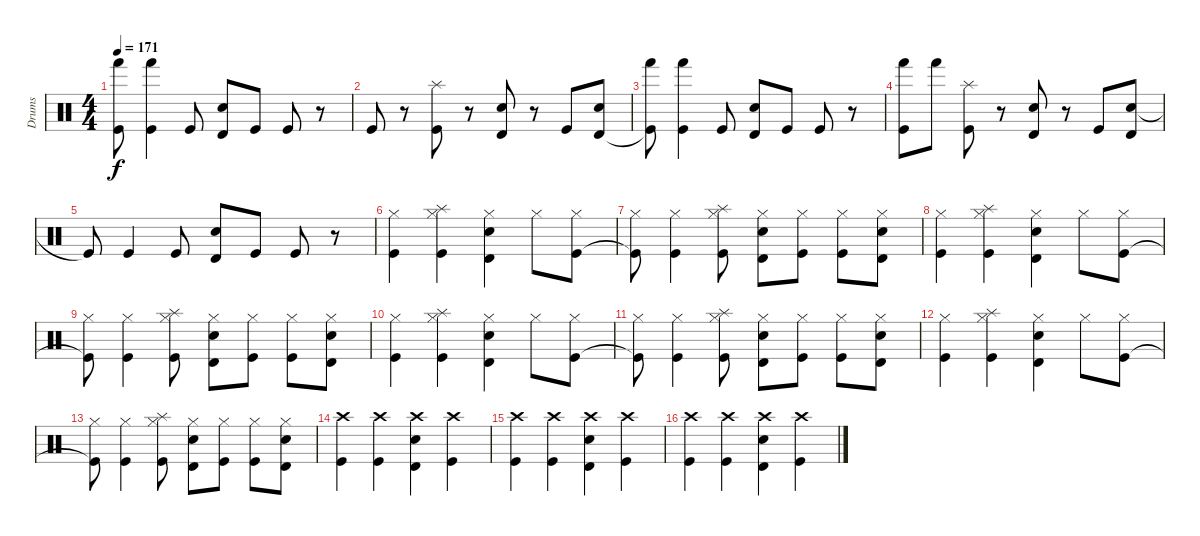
\track ("Drums" "Drums") {instrument percussion}
\staff {score}
\articulation defaults
\ts (4 4)
\tempo 171
\clef neutral
\ks c
("Hand (hit)" "Kick (hit)"{t}).8{dy f} ("Hand (hit)" "Kick (hit)").4 "Kick (hit)".8 ("Timbale high (hit)" "Electric Snare (hit)").8 "Kick (hit)".8 "Kick (hit)".8 r.8 |
"Kick (hit)".8 r.8 ("Splash (hit)" "Kick (hit)").8 r.8 ("Timbale high (hit)" "Electric Snare (hit)").8 r.8 "Kick (hit)".8 ("Electric Snare (hit)" "Timbale high (hit)").8 |
("Hand (hit)" "Kick (hit)"{t}).8 ("Hand (hit)" "Kick (hit)").4 "Kick (hit)".8 ("Timbale high (hit)" "Electric Snare (hit)").8 "Kick (hit)".8 "Kick (hit)".8 r.8 |
("Hand (hit)" "Kick (hit)").8 "Hand (hit)".8 ("Splash (hit)" "Kick (hit)").8 r.8 ("Timbale high (hit)" "Electric Snare (hit)").8 r.8 "Kick (hit)".8 ("Electric Snare (hit)" "Timbale high (hit)").8 |
"Kick (hit)"{t}.8 "Kick (hit)".4 "Kick (hit)".8 ("Timbale high (hit)" "Electric Snare (hit)").8 "Kick (hit)".8 "Kick (hit)".8 r.8 |
("Hi-Hat (closed)" "Kick (hit)").4 ("Hi-Hat (closed)" "Splash (hit)" "Kick (hit)").4 ("Hi-Hat (closed)" "Timbale high (hit)" "Electric Snare (hit)").4 "Hi-Hat (closed)".8 ("Hi-Hat (closed)" "Kick (hit)").8 |
("Hi-Hat (closed)" "Kick (hit)"{t}).8 ("Hi-Hat (closed)" "Kick (hit)").4 ("Hi-Hat (closed)" "Splash (hit)" "Kick (hit)").8 ("Hi-Hat (closed)" "Timbale high (hit)" "Electric Snare (hit)").8 ("Hi-Hat (closed)" "Kick (hit)").8 ("Hi-Hat (closed)" "Kick (hit)").8 ("Hi-Hat (closed)" "Timbale high (hit)" "Electric Snare (hit)").8 |
("Hi-Hat (closed)" "Kick (hit)").4 ("Hi-Hat (closed)" "Splash (hit)" "Kick (hit)").4 ("Hi-Hat (closed)" "Timbale high (hit)" "Electric Snare (hit)").4 "Hi-Hat (closed)".8 ("Hi-Hat (closed)" "Kick (hit)").8 |
("Hi-Hat (closed)" "Kick (hit)"{t}).8 ("Hi-Hat (closed)" "Kick (hit)").4 ("Hi-Hat (closed)" "Splash (hit)" "Kick (hit)").8 ("Hi-Hat (closed)" "Timbale high (hit)" "Electric Snare (hit)").8 ("Hi-Hat (closed)" "Kick (hit)").8 ("Hi-Hat (closed)" "Kick (hit)").8 ("Hi-Hat (closed)" "Timbale high (hit)" "Electric Snare (hit)").8 |
("Hi-Hat (closed)" "Kick (hit)").4 ("Hi-Hat (closed)" "Splash (hit)" "Kick (hit)").4 ("Hi-Hat (closed)" "Timbale high (hit)" "Electric Snare (hit)").4 "Hi-Hat (closed)".8 ("Hi-Hat (closed)" "Kick (hit)").8 |
("Hi-Hat (closed)" "Kick (hit)"{t}).8 ("Hi-Hat (closed)" "Kick (hit)").4 ("Hi-Hat (closed)" "Splash (hit)" "Kick (hit)").8 ("Hi-Hat (closed)" "Timbale high (hit)" "Electric Snare (hit)").8 ("Hi-Hat (closed)" "Kick (hit)").8 ("Hi-Hat (closed)" "Kick (hit)").8 ("Hi-Hat (closed)" "Timbale high (hit)" "Electric Snare (hit)").8 |
("Hi-Hat (closed)" "Kick (hit)").4 ("Hi-Hat (closed)" "Splash (hit)" "Kick (hit)").4 ("Hi-Hat (closed)" "Timbale high (hit)" "Electric Snare (hit)").4 "Hi-Hat (closed)".8 ("Hi-Hat (closed)" "Kick (hit)").8 |
("Hi-Hat (closed)" "Kick (hit)"{t}).8 ("Hi-Hat (closed)" "Kick (hit)").4 ("Hi-Hat (closed)" "Splash (hit)" "Kick (hit)").8 ("Hi-Hat (closed)" "Timbale high (hit)" "Electric Snare (hit)").8 ("Hi-Hat (closed)" "Kick (hit)").8 ("Hi-Hat (closed)" "Kick (hit)").8 ("Hi-Hat (closed)" "Timbale high (hit)" "Electric Snare (hit)").8 |
("Crash high (hit)" "Kick (hit)").4 ("Crash high (hit)" "Kick (hit)").4 ("Crash high (hit)" "Timbale high (hit)" "Electric Snare (hit)").4 ("Crash high (hit)" "Kick (hit)").4 |
("Crash high (hit)" "Kick (hit)").4 ("Crash high (hit)" "Kick (hit)").4 ("Crash high (hit)" "Timbale high (hit)" "Electric Snare (hit)").4 ("Crash high (hit)" "Kick (hit)").4 |
("Crash high (hit)" "Kick (hit)").4 ("Crash high (hit)" "Kick (hit)").4 ("Crash high (hit)" "Timbale high (hit)" "Electric Snare (hit)").4 ("Crash high (hit)" "Kick (hit)").4
